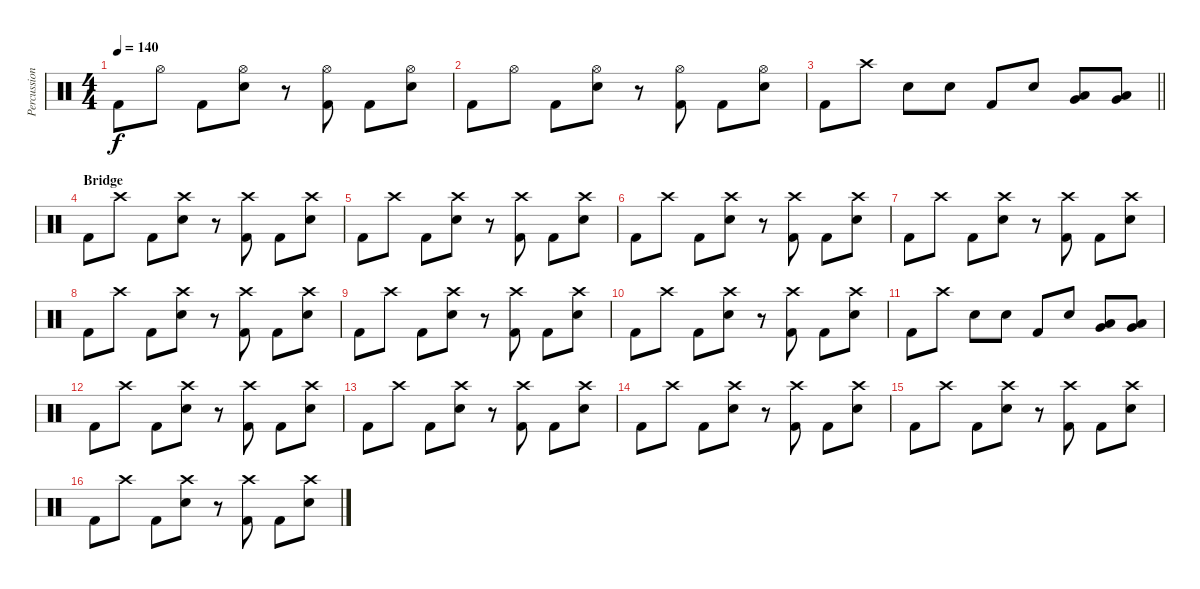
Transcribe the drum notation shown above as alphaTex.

\track ("Percussion" "Percussion") {instrument percussion}
\staff {score}
\articulation defaults
\ts (4 4)
\tempo 140
\clef neutral
\ks c "Kick (hit) 2".8{dy f} "Hi-Hat (open)".8 "Kick (hit) 2".8
("Hi-Hat (open)" "Electric Snare (hit)").8 r.8 ("Hi-Hat (open)" "Kick (hit) 2").8 "Kick (hit) 2".8 ("Hi-Hat (open)" "Electric Snare (hit)").8 |
"Kick (hit) 2".8 "Hi-Hat (open)".8 "Kick (hit) 2".8 ("Hi-Hat (open)" "Electric Snare (hit)").8 r.8 ("Hi-Hat (open)" "Kick (hit) 2").8 "Kick (hit) 2".8 ("Hi-Hat (open)" "Electric Snare (hit)").8 |
\barLineRight lightlight "Kick (hit) 2".8 "Crash high (hit)".8 "Electric Snare (hit)".8 "Electric Snare (hit)".8 "Kick (hit) 2".8 "Electric Snare (hit)".8
("Low Tom (hit)" "Very Low Tom (hit)").8 ("Low Tom (hit)" "Very Low Tom (hit)").8 |
\section ("" "Bridge")
"Kick (hit) 2".8 "Crash high (hit)".8 "Kick (hit) 2".8 ("Crash high (hit)" "Electric Snare (hit)").8 r.8 ("Crash high (hit)" "Kick (hit) 2").8 "Kick (hit) 2".8 ("Crash high (hit)" "Electric Snare (hit)").8 |
"Kick (hit) 2".8 "Crash high (hit)".8 "Kick (hit) 2".8 ("Crash high (hit)" "Electric Snare (hit)").8 r.8 ("Crash high (hit)" "Kick (hit) 2").8 "Kick (hit) 2".8 ("Crash high (hit)" "Electric Snare (hit)").8 |
"Kick (hit) 2".8 "Crash high (hit)".8 "Kick (hit) 2".8 ("Crash high (hit)" "Electric Snare (hit)").8 r.8 ("Crash high (hit)" "Kick (hit) 2").8 "Kick (hit) 2".8 ("Crash high (hit)" "Electric Snare (hit)").8 |
"Kick (hit) 2".8 "Crash high (hit)".8 "Kick (hit) 2".8 ("Crash high (hit)" "Electric Snare (hit)").8 r.8 ("Crash high (hit)" "Kick (hit) 2").8 "Kick (hit) 2".8 ("Crash high (hit)" "Electric Snare (hit)").8 |
"Kick (hit) 2".8 "Crash high (hit)".8 "Kick (hit) 2".8 ("Crash high (hit)" "Electric Snare (hit)").8 r.8 ("Crash high (hit)" "Kick (hit) 2").8 "Kick (hit) 2".8 ("Crash high (hit)" "Electric Snare (hit)").8 |
"Kick (hit) 2".8 "Crash high (hit)".8 "Kick (hit) 2".8 ("Crash high (hit)" "Electric Snare (hit)").8 r.8 ("Crash high (hit)" "Kick (hit) 2").8 "Kick (hit) 2".8 ("Crash high (hit)" "Electric Snare (hit)").8 |
"Kick (hit) 2".8 "Crash high (hit)".8 "Kick (hit) 2".8 ("Crash high (hit)" "Electric Snare (hit)").8 r.8 ("Crash high (hit)" "Kick (hit) 2").8 "Kick (hit) 2".8 ("Crash high (hit)" "Electric Snare (hit)").8 |
"Kick (hit) 2".8 "Crash high (hit)".8 "Electric Snare (hit)".8 "Electric Snare (hit)".8 "Kick (hit) 2".8 "Electric Snare (hit)".8 ("Low Tom (hit)" "Very Low Tom (hit)").8 ("Low Tom (hit)" "Very Low Tom (hit)").8 |
"Kick (hit) 2".8 "Crash high (hit)".8 "Kick (hit) 2".8 ("Crash high (hit)" "Electric Snare (hit)").8 r.8 ("Crash high (hit)" "Kick (hit) 2").8 "Kick (hit) 2".8 ("Crash high (hit)" "Electric Snare (hit)").8 |
"Kick (hit) 2".8 "Crash high (hit)".8 "Kick (hit) 2".8 ("Crash high (hit)" "Electric Snare (hit)").8 r.8 ("Crash high (hit)" "Kick (hit) 2").8 "Kick (hit) 2".8 ("Crash high (hit)" "Electric Snare (hit)").8 |
"Kick (hit) 2".8 "Crash high (hit)".8 "Kick (hit) 2".8 ("Crash high (hit)" "Electric Snare (hit)").8 r.8 ("Crash high (hit)" "Kick (hit) 2").8 "Kick (hit) 2".8 ("Crash high (hit)" "Electric Snare (hit)").8 |
"Kick (hit) 2".8 "Crash high (hit)".8 "Kick (hit) 2".8 ("Crash high (hit)" "Electric Snare (hit)").8 r.8 ("Crash high (hit)" "Kick (hit) 2").8 "Kick (hit) 2".8 ("Crash high (hit)" "Electric Snare (hit)").8 |
"Kick (hit) 2".8 "Crash high (hit)".8 "Kick (hit) 2".8 ("Crash high (hit)" "Electric Snare (hit)").8 r.8 ("Crash high (hit)" "Kick (hit) 2").8 "Kick (hit) 2".8 ("Crash high (hit)" "Electric Snare (hit)").8
